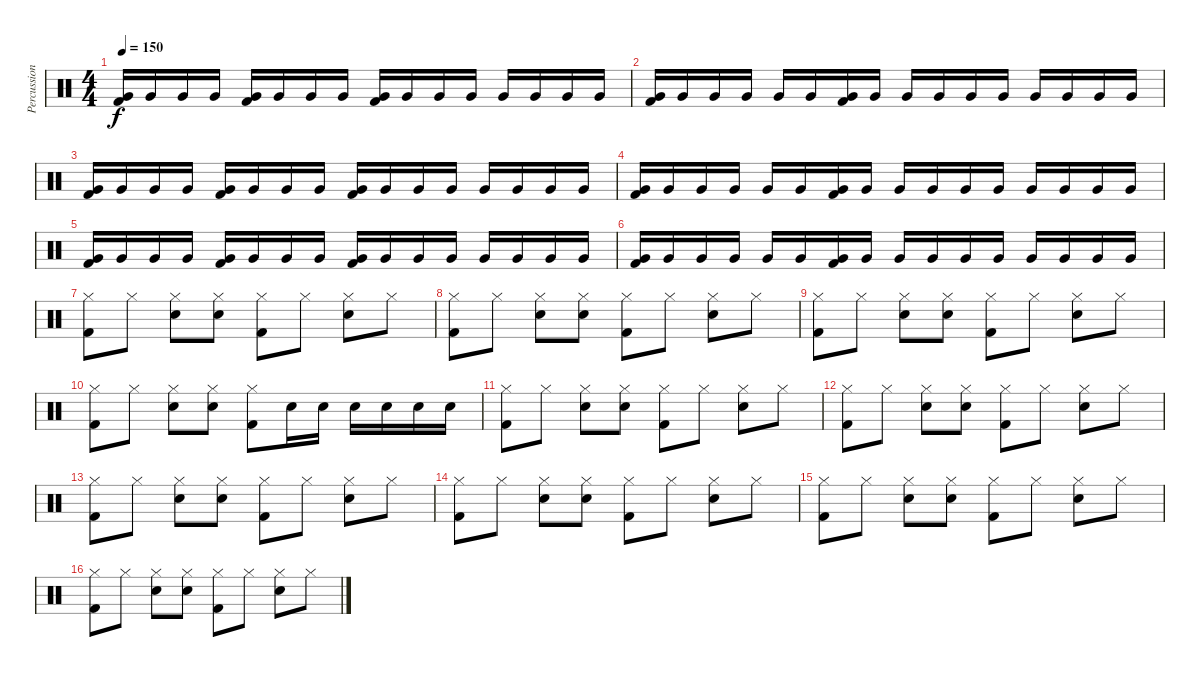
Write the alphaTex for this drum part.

\track ("Percussion" "Percussion") {instrument percussion}
\staff {score}
\articulation defaults
\ts (4 4)
\tempo 150
\clef neutral
\ks c
("Very Low Tom (hit)" "Kick (hit) 2").16{dy f} "Very Low Tom (hit)".16 "Very Low Tom (hit)".16 "Very Low Tom (hit)".16 ("Very Low Tom (hit)" "Kick (hit) 2").16 "Very Low Tom (hit)".16 "Very Low Tom (hit)".16 "Very Low Tom (hit)".16 ("Very Low Tom (hit)" "Kick (hit) 2").16 "Very Low Tom (hit)".16 "Very Low Tom (hit)".16 "Very Low Tom (hit)".16 "Very Low Tom (hit)".16 "Very Low Tom (hit)".16 "Very Low Tom (hit)".16 "Very Low Tom (hit)".16 |
("Very Low Tom (hit)" "Kick (hit) 2").16 "Very Low Tom (hit)".16 "Very Low Tom (hit)".16 "Very Low Tom (hit)".16 "Very Low Tom (hit)".16 "Very Low Tom (hit)".16 ("Very Low Tom (hit)" "Kick (hit) 2").16 "Very Low Tom (hit)".16 "Very Low Tom (hit)".16 "Very Low Tom (hit)".16 "Very Low Tom (hit)".16 "Very Low Tom (hit)".16 "Very Low Tom (hit)".16 "Very Low Tom (hit)".16 "Very Low Tom (hit)".16 "Very Low Tom (hit)".16 |
("Very Low Tom (hit)" "Kick (hit) 2").16 "Very Low Tom (hit)".16 "Very Low Tom (hit)".16 "Very Low Tom (hit)".16 ("Very Low Tom (hit)" "Kick (hit) 2").16 "Very Low Tom (hit)".16 "Very Low Tom (hit)".16 "Very Low Tom (hit)".16 ("Very Low Tom (hit)" "Kick (hit) 2").16 "Very Low Tom (hit)".16 "Very Low Tom (hit)".16 "Very Low Tom (hit)".16 "Very Low Tom (hit)".16 "Very Low Tom (hit)".16 "Very Low Tom (hit)".16 "Very Low Tom (hit)".16 |
("Very Low Tom (hit)" "Kick (hit) 2").16 "Very Low Tom (hit)".16 "Very Low Tom (hit)".16 "Very Low Tom (hit)".16 "Very Low Tom (hit)".16 "Very Low Tom (hit)".16 ("Very Low Tom (hit)" "Kick (hit) 2").16 "Very Low Tom (hit)".16 "Very Low Tom (hit)".16 "Very Low Tom (hit)".16 "Very Low Tom (hit)".16 "Very Low Tom (hit)".16 "Very Low Tom (hit)".16 "Very Low Tom (hit)".16 "Very Low Tom (hit)".16 "Very Low Tom (hit)".16 |
("Very Low Tom (hit)" "Kick (hit) 2").16 "Very Low Tom (hit)".16 "Very Low Tom (hit)".16 "Very Low Tom (hit)".16 ("Very Low Tom (hit)" "Kick (hit) 2").16 "Very Low Tom (hit)".16 "Very Low Tom (hit)".16 "Very Low Tom (hit)".16 ("Very Low Tom (hit)" "Kick (hit) 2").16 "Very Low Tom (hit)".16 "Very Low Tom (hit)".16 "Very Low Tom (hit)".16 "Very Low Tom (hit)".16 "Very Low Tom (hit)".16 "Very Low Tom (hit)".16 "Very Low Tom (hit)".16 |
("Very Low Tom (hit)" "Kick (hit) 2").16 "Very Low Tom (hit)".16 "Very Low Tom (hit)".16 "Very Low Tom (hit)".16 "Very Low Tom (hit)".16 "Very Low Tom (hit)".16 ("Very Low Tom (hit)" "Kick (hit) 2").16 "Very Low Tom (hit)".16 "Very Low Tom (hit)".16 "Very Low Tom (hit)".16 "Very Low Tom (hit)".16 "Very Low Tom (hit)".16 "Very Low Tom (hit)".16 "Very Low Tom (hit)".16 "Very Low Tom (hit)".16 "Very Low Tom (hit)".16 |
("Hi-Hat (closed)" "Kick (hit) 2").8 "Hi-Hat (closed)".8 ("Hi-Hat (closed)" "Electric Snare (hit)").8 ("Hi-Hat (closed)" "Electric Snare (hit)").8 ("Hi-Hat (closed)" "Kick (hit) 2").8 "Hi-Hat (closed)".8 ("Hi-Hat (closed)" "Electric Snare (hit)").8 "Hi-Hat (closed)".8 |
("Hi-Hat (closed)" "Kick (hit) 2").8 "Hi-Hat (closed)".8 ("Hi-Hat (closed)" "Electric Snare (hit)").8 ("Hi-Hat (closed)" "Electric Snare (hit)").8 ("Hi-Hat (closed)" "Kick (hit) 2").8 "Hi-Hat (closed)".8 ("Hi-Hat (closed)" "Electric Snare (hit)").8 "Hi-Hat (closed)".8 |
("Hi-Hat (closed)" "Kick (hit) 2").8 "Hi-Hat (closed)".8 ("Hi-Hat (closed)" "Electric Snare (hit)").8 ("Hi-Hat (closed)" "Electric Snare (hit)").8 ("Hi-Hat (closed)" "Kick (hit) 2").8 "Hi-Hat (closed)".8 ("Hi-Hat (closed)" "Electric Snare (hit)").8 "Hi-Hat (closed)".8 |
("Hi-Hat (closed)" "Kick (hit) 2").8 "Hi-Hat (closed)".8 ("Hi-Hat (closed)" "Electric Snare (hit)").8 ("Hi-Hat (closed)" "Electric Snare (hit)").8 ("Hi-Hat (closed)" "Kick (hit) 2").8 "Electric Snare (hit)".16 "Electric Snare (hit)".16 "Electric Snare (hit)".16 "Electric Snare (hit)".16 "Electric Snare (hit)".16 "Electric Snare (hit)".16 |
("Hi-Hat (closed)" "Kick (hit) 2").8 "Hi-Hat (closed)".8 ("Hi-Hat (closed)" "Electric Snare (hit)").8 ("Hi-Hat (closed)" "Electric Snare (hit)").8 ("Hi-Hat (closed)" "Kick (hit) 2").8 "Hi-Hat (closed)".8 ("Hi-Hat (closed)" "Electric Snare (hit)").8 "Hi-Hat (closed)".8 |
("Hi-Hat (closed)" "Kick (hit) 2").8 "Hi-Hat (closed)".8 ("Hi-Hat (closed)" "Electric Snare (hit)").8 ("Hi-Hat (closed)" "Electric Snare (hit)").8 ("Hi-Hat (closed)" "Kick (hit) 2").8 "Hi-Hat (closed)".8 ("Hi-Hat (closed)" "Electric Snare (hit)").8 "Hi-Hat (closed)".8 |
("Hi-Hat (closed)" "Kick (hit) 2").8 "Hi-Hat (closed)".8 ("Hi-Hat (closed)" "Electric Snare (hit)").8 ("Hi-Hat (closed)" "Electric Snare (hit)").8 ("Hi-Hat (closed)" "Kick (hit) 2").8 "Hi-Hat (closed)".8 ("Hi-Hat (closed)" "Electric Snare (hit)").8 "Hi-Hat (closed)".8 |
("Hi-Hat (closed)" "Kick (hit) 2").8 "Hi-Hat (closed)".8 ("Hi-Hat (closed)" "Electric Snare (hit)").8 ("Hi-Hat (closed)" "Electric Snare (hit)").8 ("Hi-Hat (closed)" "Kick (hit) 2").8 "Hi-Hat (closed)".8 ("Hi-Hat (closed)" "Electric Snare (hit)").8 "Hi-Hat (closed)".8 |
("Hi-Hat (closed)" "Kick (hit) 2").8 "Hi-Hat (closed)".8 ("Hi-Hat (closed)" "Electric Snare (hit)").8 ("Hi-Hat (closed)" "Electric Snare (hit)").8 ("Hi-Hat (closed)" "Kick (hit) 2").8 "Hi-Hat (closed)".8 ("Hi-Hat (closed)" "Electric Snare (hit)").8 "Hi-Hat (closed)".8 |
("Hi-Hat (closed)" "Kick (hit) 2").8 "Hi-Hat (closed)".8 ("Hi-Hat (closed)" "Electric Snare (hit)").8 ("Hi-Hat (closed)" "Electric Snare (hit)").8 ("Hi-Hat (closed)" "Kick (hit) 2").8 "Hi-Hat (closed)".8 ("Hi-Hat (closed)" "Electric Snare (hit)").8 "Hi-Hat (closed)".8
